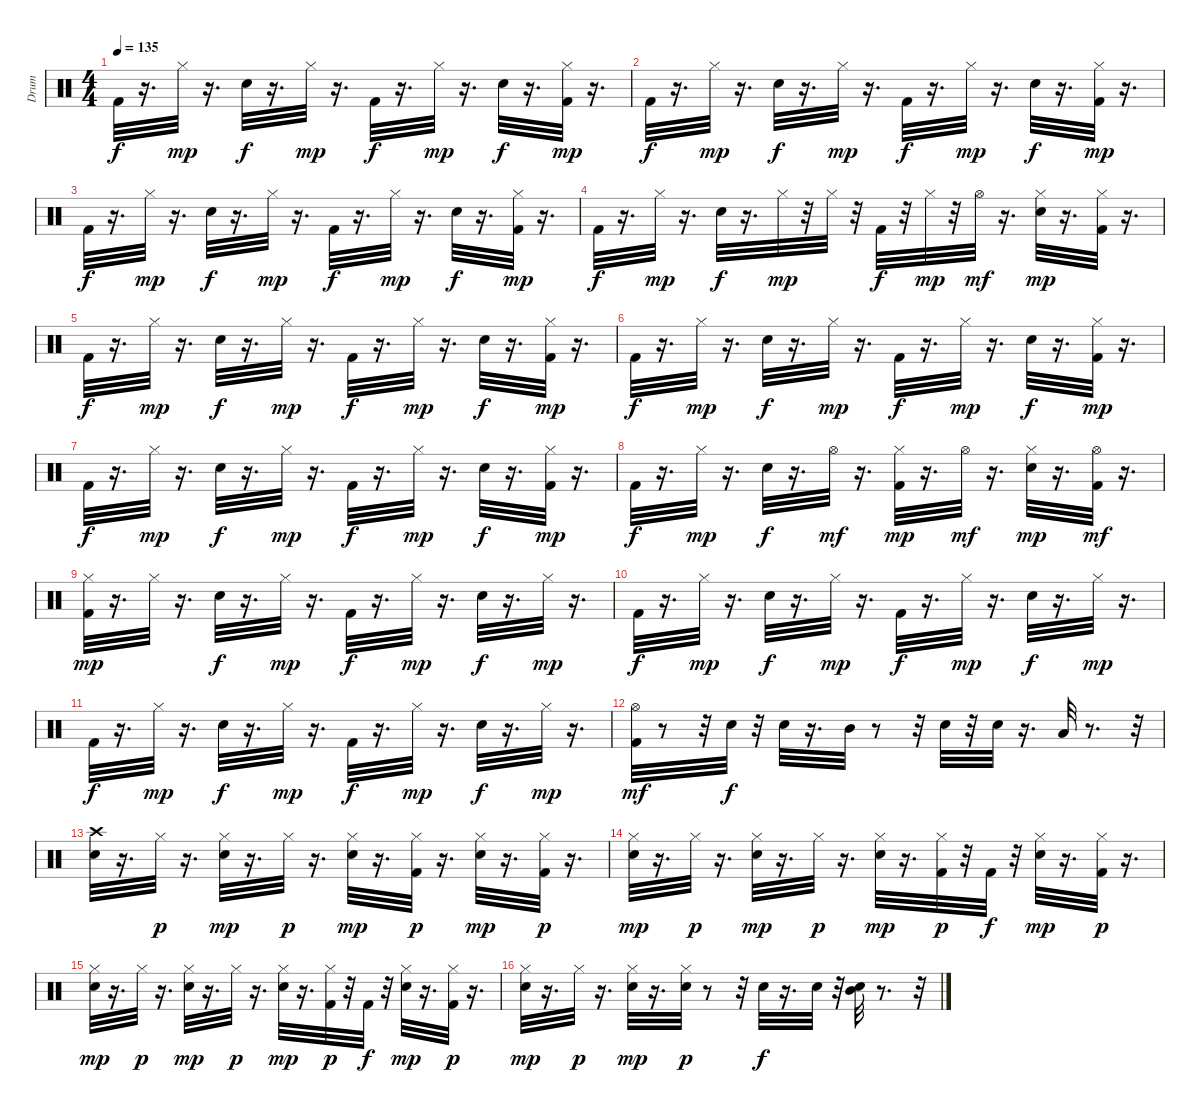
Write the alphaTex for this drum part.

\track ("Drum" "Drum") {instrument percussion}
\staff {score}
\articulation defaults
\ts (4 4)
\tempo 135
\clef neutral
\ks c "Kick (hit) 2".32{dy f}
r.16{d} "Hi-Hat (closed)".32{dy mp} r.16{d} "Electric Snare (hit)".32{dy f} r.16{d} "Hi-Hat (closed)".32{dy mp} r.16{d} "Kick (hit) 2".32{dy f} r.16{d} "Hi-Hat (closed)".32{dy mp} r.16{d} "Electric Snare (hit)".32{dy f} r.16{d} ("Hi-Hat (closed)" "Kick (hit) 2").32{dy mp} r.16{d} |
"Kick (hit) 2".32{dy f} r.16{d} "Hi-Hat (closed)".32{dy mp} r.16{d} "Electric Snare (hit)".32{dy f} r.16{d} "Hi-Hat (closed)".32{dy mp} r.16{d} "Kick (hit) 2".32{dy f} r.16{d} "Hi-Hat (closed)".32{dy mp} r.16{d} "Electric Snare (hit)".32{dy f} r.16{d} ("Hi-Hat (closed)" "Kick (hit) 2").32{dy mp} r.16{d} |
"Kick (hit) 2".32{dy f} r.16{d} "Hi-Hat (closed)".32{dy mp} r.16{d} "Electric Snare (hit)".32{dy f} r.16{d} "Hi-Hat (closed)".32{dy mp} r.16{d} "Kick (hit) 2".32{dy f} r.16{d} "Hi-Hat (closed)".32{dy mp} r.16{d} "Electric Snare (hit)".32{dy f} r.16{d} ("Hi-Hat (closed)" "Kick (hit) 2").32{dy mp} r.16{d} |
"Kick (hit) 2".32{dy f} r.16{d} "Hi-Hat (closed)".32{dy mp} r.16{d} "Electric Snare (hit)".32{dy f} r.16{d} "Hi-Hat (closed)".32{dy mp} r.32 "Hi-Hat (closed)".32 r.32 "Kick (hit) 2".32{dy f} r.32 "Hi-Hat (closed)".32{dy mp} r.32 "Hi-Hat (open)".32{dy mf} r.16{d} ("Hi-Hat (closed)" "Electric Snare (hit)").32{dy mp} r.16{d} ("Kick (hit) 2" "Hi-Hat (closed)").32 r.16{d} |
"Kick (hit) 2".32{dy f} r.16{d} "Hi-Hat (closed)".32{dy mp} r.16{d} "Electric Snare (hit)".32{dy f} r.16{d} "Hi-Hat (closed)".32{dy mp} r.16{d} "Kick (hit) 2".32{dy f} r.16{d} "Hi-Hat (closed)".32{dy mp} r.16{d} "Electric Snare (hit)".32{dy f} r.16{d} ("Hi-Hat (closed)" "Kick (hit) 2").32{dy mp} r.16{d} |
"Kick (hit) 2".32{dy f} r.16{d} "Hi-Hat (closed)".32{dy mp} r.16{d} "Electric Snare (hit)".32{dy f} r.16{d} "Hi-Hat (closed)".32{dy mp} r.16{d} "Kick (hit) 2".32{dy f} r.16{d} "Hi-Hat (closed)".32{dy mp} r.16{d} "Electric Snare (hit)".32{dy f} r.16{d} ("Hi-Hat (closed)" "Kick (hit) 2").32{dy mp} r.16{d} |
"Kick (hit) 2".32{dy f} r.16{d} "Hi-Hat (closed)".32{dy mp} r.16{d} "Electric Snare (hit)".32{dy f} r.16{d} "Hi-Hat (closed)".32{dy mp} r.16{d} "Kick (hit) 2".32{dy f} r.16{d} "Hi-Hat (closed)".32{dy mp} r.16{d} "Electric Snare (hit)".32{dy f} r.16{d} ("Hi-Hat (closed)" "Kick (hit) 2").32{dy mp} r.16{d} |
"Kick (hit) 2".32{dy f} r.16{d} "Hi-Hat (closed)".32{dy mp} r.16{d} "Electric Snare (hit)".32{dy f} r.16{d} "Hi-Hat (open)".32{dy mf} r.16{d} ("Kick (hit) 2" "Hi-Hat (closed)").32{dy mp} r.16{d} "Hi-Hat (open)".32{dy mf} r.16{d} ("Hi-Hat (closed)" "Electric Snare (hit)").32{dy mp} r.16{d} ("Hi-Hat (open)" "Kick (hit) 2").32{dy mf} r.16{d} |
("Kick (hit) 2" "Hi-Hat (closed)").32{dy mp} r.16{d} "Hi-Hat (closed)".32 r.16{d} "Electric Snare (hit)".32{dy f} r.16{d} "Hi-Hat (closed)".32{dy mp} r.16{d} "Kick (hit) 2".32{dy f} r.16{d} "Hi-Hat (closed)".32{dy mp} r.16{d} "Electric Snare (hit)".32{dy f} r.16{d} "Hi-Hat (closed)".32{dy mp} r.16{d} |
"Kick (hit) 2".32{dy f} r.16{d} "Hi-Hat (closed)".32{dy mp} r.16{d} "Electric Snare (hit)".32{dy f} r.16{d} "Hi-Hat (closed)".32{dy mp} r.16{d} "Kick (hit) 2".32{dy f} r.16{d} "Hi-Hat (closed)".32{dy mp} r.16{d} "Electric Snare (hit)".32{dy f} r.16{d} "Hi-Hat (closed)".32{dy mp} r.16{d} |
"Kick (hit) 2".32{dy f} r.16{d} "Hi-Hat (closed)".32{dy mp} r.16{d} "Electric Snare (hit)".32{dy f} r.16{d} "Hi-Hat (closed)".32{dy mp} r.16{d} "Kick (hit) 2".32{dy f} r.16{d} "Hi-Hat (closed)".32{dy mp} r.16{d} "Electric Snare (hit)".32{dy f} r.16{d} "Hi-Hat (closed)".32{dy mp} r.16{d} |
("Hi-Hat (open)" "Kick (hit) 2").32{dy mf} r.8 r.32 "Electric Snare (hit)".32{dy f} r.32 "Electric Snare (hit)".32 r.16{d} "Mid Tom (hit)".32 r.8 r.32 "Electric Snare (hit)".32 r.32 "Electric Snare (hit)".32 r.16{d} "Low Tom (hit)".32 r.8{d} r.32 |
("Crash high (hit)" "Electric Snare (hit)").32 r.16{d} "Hi-Hat (closed)".32{dy p} r.16{d} ("Hi-Hat (closed)" "Electric Snare (hit)").32{dy mp} r.16{d} "Hi-Hat (closed)".32{dy p} r.16{d} ("Hi-Hat (closed)" "Electric Snare (hit)").32{dy mp} r.16{d} ("Hi-Hat (closed)" "Kick (hit) 2").32{dy p} r.16{d} ("Hi-Hat (closed)" "Electric Snare (hit)").32{dy mp} r.16{d} ("Hi-Hat (closed)" "Kick (hit) 2").32{dy p} r.16{d} |
("Electric Snare (hit)" "Hi-Hat (closed)").32{dy mp} r.16{d} "Hi-Hat (closed)".32{dy p} r.16{d} ("Hi-Hat (closed)" "Electric Snare (hit)").32{dy mp} r.16{d} "Hi-Hat (closed)".32{dy p} r.16{d} ("Hi-Hat (closed)" "Electric Snare (hit)").32{dy mp} r.16{d} ("Hi-Hat (closed)" "Kick (hit) 2").32{dy p} r.32 "Kick (hit) 2".32{dy f} r.32 ("Hi-Hat (closed)" "Electric Snare (hit)").32{dy mp} r.16{d} ("Hi-Hat (closed)" "Kick (hit) 2").32{dy p} r.16{d} |
("Electric Snare (hit)" "Hi-Hat (closed)").32{dy mp} r.16{d} "Hi-Hat (closed)".32{dy p} r.16{d} ("Hi-Hat (closed)" "Electric Snare (hit)").32{dy mp} r.16{d} "Hi-Hat (closed)".32{dy p} r.16{d} ("Hi-Hat (closed)" "Electric Snare (hit)").32{dy mp} r.16{d} ("Hi-Hat (closed)" "Kick (hit) 2").32{dy p} r.32 "Kick (hit) 2".32{dy f} r.32 ("Hi-Hat (closed)" "Electric Snare (hit)").32{dy mp} r.16{d} ("Hi-Hat (closed)" "Kick (hit) 2").32{dy p} r.16{d} |
("Electric Snare (hit)" "Hi-Hat (closed)").32{dy mp} r.16{d} "Hi-Hat (closed)".32{dy p} r.16{d} ("Hi-Hat (closed)" "Electric Snare (hit)").32{dy mp} r.16{d} ("Hi-Hat (closed)" "Electric Snare (hit)").32{dy p} r.8 r.32 "Electric Snare (hit)".32{dy f} r.16{d} "Electric Snare (hit)".32 r.32 ("Mid Tom (hit)" "Electric Snare (hit)").32 r.8{d} r.32
